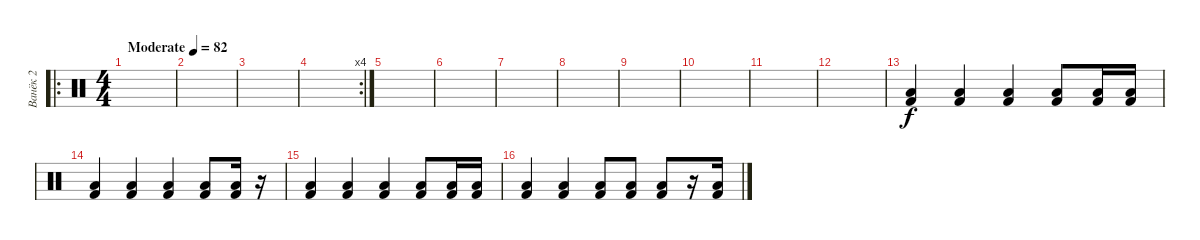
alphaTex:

\track ("Ванёк 2" "Ванёк 2") {instrument percussion}
\staff {score}
\articulation defaults
\ro
\ts (4 4)
\tempo (82 "Moderate")
\clef neutral
\ks c
|
|
|
\rc 4
|
|
|
|
|
|
|
|
|
("Low Tom (hit)" "Kick (hit) 2").4 ("Low Tom (hit)" "Kick (hit) 2").4 ("Low Tom (hit)" "Kick (hit) 2").4 ("Low Tom (hit)" "Kick (hit) 2").8 ("Low Tom (hit)" "Kick (hit) 2").16 ("Low Tom (hit)" "Kick (hit) 2").16 |
("Low Tom (hit)" "Kick (hit) 2").4 ("Low Tom (hit)" "Kick (hit) 2").4 ("Low Tom (hit)" "Kick (hit) 2").4 ("Low Tom (hit)" "Kick (hit) 2").8 ("Low Tom (hit)" "Kick (hit) 2").16 r.16 |
("Low Tom (hit)" "Kick (hit) 2").4 ("Low Tom (hit)" "Kick (hit) 2").4 ("Low Tom (hit)" "Kick (hit) 2").4 ("Low Tom (hit)" "Kick (hit) 2").8 ("Low Tom (hit)" "Kick (hit) 2").16 ("Low Tom (hit)" "Kick (hit) 2").16 |
("Low Tom (hit)" "Kick (hit) 2").4 ("Low Tom (hit)" "Kick (hit) 2").4 ("Low Tom (hit)" "Kick (hit) 2").8 ("Low Tom (hit)" "Kick (hit) 2").8 ("Low Tom (hit)" "Kick (hit) 2").8 r.16 ("Low Tom (hit)" "Kick (hit) 2").16
